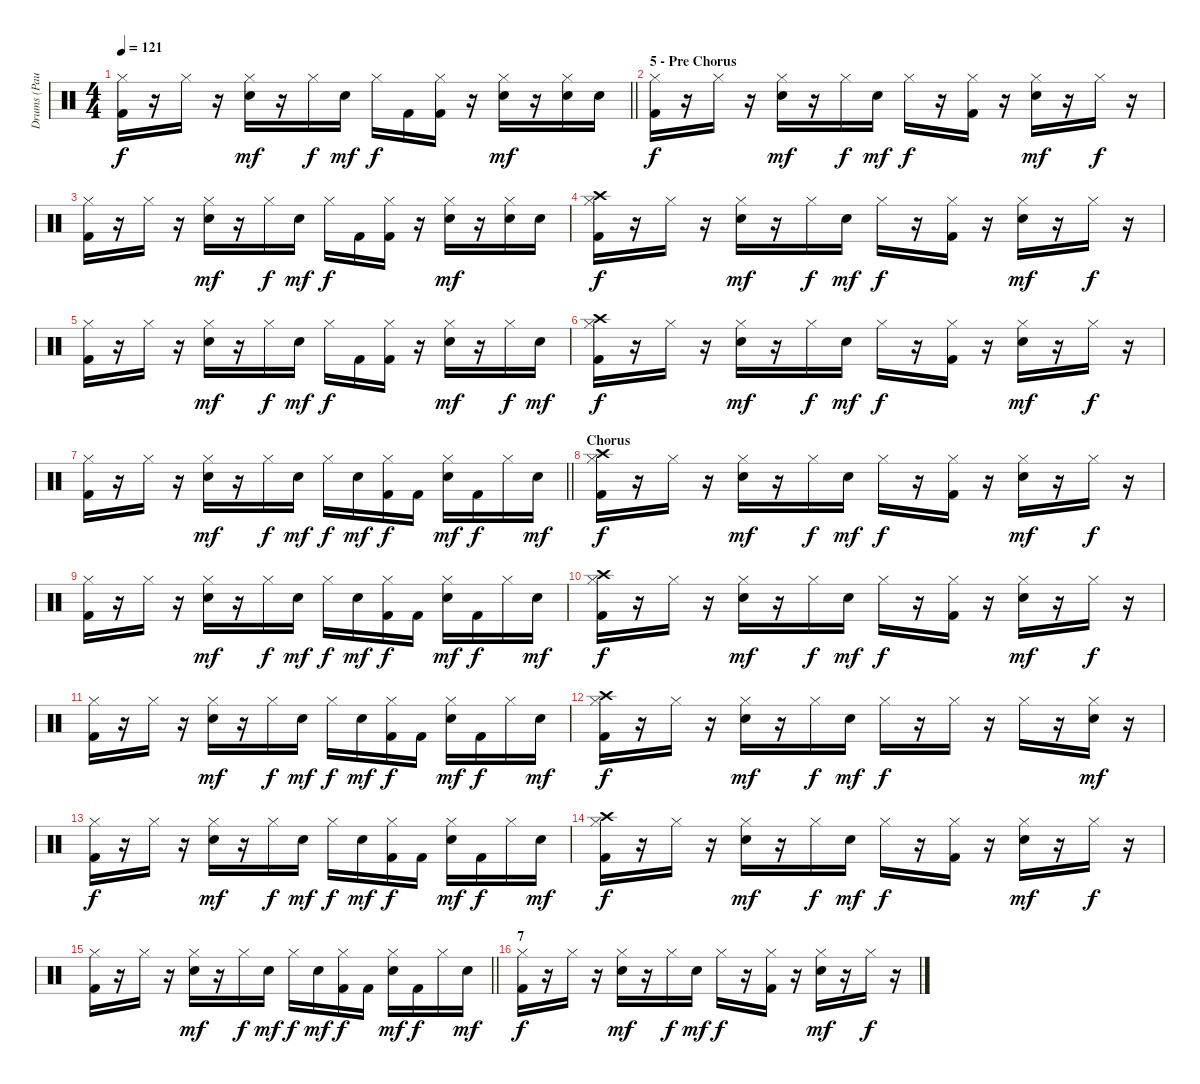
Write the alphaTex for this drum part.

\track ("Drums (Paul)" "Drums (Pau") {instrument percussion}
\staff {score}
\articulation defaults
\ts (4 4)
\tempo 121
\clef neutral
\barLineRight lightlight
\ks c
("Hi-Hat (closed)" "Kick (hit) 2").16{dy f} r.16 "Hi-Hat (closed)".16 r.16 ("Hi-Hat (closed)" "Snare (hit) 2").16{dy mf} r.16 "Hi-Hat (closed)".16{dy f} "Snare (hit) 2".16{dy mf} "Hi-Hat (closed)".16{dy f} "Kick (hit) 2".16 ("Hi-Hat (closed)" "Kick (hit) 2").16 r.16 ("Hi-Hat (closed)" "Snare (hit) 2").16{dy mf} r.16 ("Hi-Hat (closed)" "Snare (hit) 2").16 "Snare (hit) 2".16 |
\section ("" "5 - Pre Chorus")
("Hi-Hat (closed)" "Kick (hit) 2").16{dy f} r.16 "Hi-Hat (closed)".16 r.16 ("Hi-Hat (closed)" "Snare (hit) 2").16{dy mf} r.16 "Hi-Hat (closed)".16{dy f} "Snare (hit) 2".16{dy mf} "Hi-Hat (closed)".16{dy f} r.16 ("Hi-Hat (closed)" "Kick (hit) 2").16 r.16 ("Hi-Hat (closed)" "Snare (hit) 2").16{dy mf} r.16 "Hi-Hat (closed)".16{dy f} r.16 |
("Hi-Hat (closed)" "Kick (hit) 2").16 r.16 "Hi-Hat (closed)".16 r.16 ("Hi-Hat (closed)" "Snare (hit) 2").16{dy mf} r.16 "Hi-Hat (closed)".16{dy f} "Snare (hit) 2".16{dy mf} "Hi-Hat (closed)".16{dy f} "Kick (hit) 2".16 ("Hi-Hat (closed)" "Kick (hit) 2").16 r.16 ("Hi-Hat (closed)" "Snare (hit) 2").16{dy mf} r.16 ("Hi-Hat (closed)" "Snare (hit) 2").16 "Snare (hit) 2".16 |
("Hi-Hat (closed)" "Crash high (hit)" "Kick (hit) 2").16{dy f} r.16 "Hi-Hat (closed)".16 r.16 ("Hi-Hat (closed)" "Snare (hit) 2").16{dy mf} r.16 "Hi-Hat (closed)".16{dy f} "Snare (hit) 2".16{dy mf} "Hi-Hat (closed)".16{dy f} r.16 ("Hi-Hat (closed)" "Kick (hit) 2").16 r.16 ("Hi-Hat (closed)" "Snare (hit) 2").16{dy mf} r.16 "Hi-Hat (closed)".16{dy f} r.16 |
("Hi-Hat (closed)" "Kick (hit) 2").16 r.16 "Hi-Hat (closed)".16 r.16 ("Hi-Hat (closed)" "Snare (hit) 2").16{dy mf} r.16 "Hi-Hat (closed)".16{dy f} "Snare (hit) 2".16{dy mf} "Hi-Hat (closed)".16{dy f} "Kick (hit) 2".16 ("Hi-Hat (closed)" "Kick (hit) 2").16 r.16 ("Hi-Hat (closed)" "Snare (hit) 2").16{dy mf} r.16 "Hi-Hat (closed)".16{dy f} "Snare (hit) 2".16{dy mf} |
("Hi-Hat (closed)" "Crash high (hit)" "Kick (hit) 2").16{dy f} r.16 "Hi-Hat (closed)".16 r.16 ("Hi-Hat (closed)" "Snare (hit) 2").16{dy mf} r.16 "Hi-Hat (closed)".16{dy f} "Snare (hit) 2".16{dy mf} "Hi-Hat (closed)".16{dy f} r.16 ("Hi-Hat (closed)" "Kick (hit) 2").16 r.16 ("Hi-Hat (closed)" "Snare (hit) 2").16{dy mf} r.16 "Hi-Hat (closed)".16{dy f} r.16 |
\barLineRight lightlight
("Hi-Hat (closed)" "Kick (hit) 2").16 r.16 "Hi-Hat (closed)".16 r.16 ("Hi-Hat (closed)" "Snare (hit) 2").16{dy mf} r.16 "Hi-Hat (closed)".16{dy f} "Snare (hit) 2".16{dy mf} "Hi-Hat (closed)".16{dy f} "Snare (hit) 2".16{dy mf} ("Hi-Hat (closed)" "Kick (hit) 2").16{dy f} "Kick (hit) 2".16 ("Hi-Hat (closed)" "Snare (hit) 2").16{dy mf} "Kick (hit) 2".16{dy f} "Hi-Hat (closed)".16 "Snare (hit) 2".16{dy mf} |
\section ("" "Chorus")
("Hi-Hat (closed)" "Crash high (hit)" "Kick (hit) 2").16{dy f} r.16 "Hi-Hat (closed)".16 r.16 ("Hi-Hat (closed)" "Snare (hit) 2").16{dy mf} r.16 "Hi-Hat (closed)".16{dy f} "Snare (hit) 2".16{dy mf} "Hi-Hat (closed)".16{dy f} r.16 ("Hi-Hat (closed)" "Kick (hit) 2").16 r.16 ("Hi-Hat (closed)" "Snare (hit) 2").16{dy mf} r.16 "Hi-Hat (closed)".16{dy f} r.16 |
("Hi-Hat (closed)" "Kick (hit) 2").16 r.16 "Hi-Hat (closed)".16 r.16 ("Hi-Hat (closed)" "Snare (hit) 2").16{dy mf} r.16 "Hi-Hat (closed)".16{dy f} "Snare (hit) 2".16{dy mf} "Hi-Hat (closed)".16{dy f} "Snare (hit) 2".16{dy mf} ("Hi-Hat (closed)" "Kick (hit) 2").16{dy f} "Kick (hit) 2".16 ("Hi-Hat (closed)" "Snare (hit) 2").16{dy mf} "Kick (hit) 2".16{dy f} "Hi-Hat (closed)".16 "Snare (hit) 2".16{dy mf} |
("Hi-Hat (closed)" "Crash high (hit)" "Kick (hit) 2").16{dy f} r.16 "Hi-Hat (closed)".16 r.16 ("Hi-Hat (closed)" "Snare (hit) 2").16{dy mf} r.16 "Hi-Hat (closed)".16{dy f} "Snare (hit) 2".16{dy mf} "Hi-Hat (closed)".16{dy f} r.16 ("Hi-Hat (closed)" "Kick (hit) 2").16 r.16 ("Hi-Hat (closed)" "Snare (hit) 2").16{dy mf} r.16 "Hi-Hat (closed)".16{dy f} r.16 |
("Hi-Hat (closed)" "Kick (hit) 2").16 r.16 "Hi-Hat (closed)".16 r.16 ("Hi-Hat (closed)" "Snare (hit) 2").16{dy mf} r.16 "Hi-Hat (closed)".16{dy f} "Snare (hit) 2".16{dy mf} "Hi-Hat (closed)".16{dy f} "Snare (hit) 2".16{dy mf} ("Hi-Hat (closed)" "Kick (hit) 2").16{dy f} "Kick (hit) 2".16 ("Hi-Hat (closed)" "Snare (hit) 2").16{dy mf} "Kick (hit) 2".16{dy f} "Hi-Hat (closed)".16 "Snare (hit) 2".16{dy mf} |
("Hi-Hat (closed)" "Crash high (hit)" "Kick (hit) 2").16{dy f} r.16 "Hi-Hat (closed)".16 r.16 ("Hi-Hat (closed)" "Snare (hit) 2").16{dy mf} r.16 "Hi-Hat (closed)".16{dy f} "Snare (hit) 2".16{dy mf} "Hi-Hat (closed)".16{dy f} r.16 "Hi-Hat (closed)".16 r.16 "Hi-Hat (closed)".16 r.16 ("Hi-Hat (closed)" "Snare (hit) 2").16{dy mf} r.16 |
("Hi-Hat (closed)" "Kick (hit) 2").16{dy f} r.16 "Hi-Hat (closed)".16 r.16 ("Hi-Hat (closed)" "Snare (hit) 2").16{dy mf} r.16 "Hi-Hat (closed)".16{dy f} "Snare (hit) 2".16{dy mf} "Hi-Hat (closed)".16{dy f} "Snare (hit) 2".16{dy mf} ("Hi-Hat (closed)" "Kick (hit) 2").16{dy f} "Kick (hit) 2".16 ("Hi-Hat (closed)" "Snare (hit) 2").16{dy mf} "Kick (hit) 2".16{dy f} "Hi-Hat (closed)".16 "Snare (hit) 2".16{dy mf} |
("Hi-Hat (closed)" "Crash high (hit)" "Kick (hit) 2").16{dy f} r.16 "Hi-Hat (closed)".16 r.16 ("Hi-Hat (closed)" "Snare (hit) 2").16{dy mf} r.16 "Hi-Hat (closed)".16{dy f} "Snare (hit) 2".16{dy mf} "Hi-Hat (closed)".16{dy f} r.16 ("Hi-Hat (closed)" "Kick (hit) 2").16 r.16 ("Hi-Hat (closed)" "Snare (hit) 2").16{dy mf} r.16 "Hi-Hat (closed)".16{dy f} r.16 |
\barLineRight lightlight
("Hi-Hat (closed)" "Kick (hit) 2").16 r.16 "Hi-Hat (closed)".16 r.16 ("Hi-Hat (closed)" "Snare (hit) 2").16{dy mf} r.16 "Hi-Hat (closed)".16{dy f} "Snare (hit) 2".16{dy mf} "Hi-Hat (closed)".16{dy f} "Snare (hit) 2".16{dy mf} ("Hi-Hat (closed)" "Kick (hit) 2").16{dy f} "Kick (hit) 2".16 ("Hi-Hat (closed)" "Snare (hit) 2").16{dy mf} "Kick (hit) 2".16{dy f} "Hi-Hat (closed)".16 "Snare (hit) 2".16{dy mf} |
\section ("" "7")
("Hi-Hat (closed)" "Kick (hit) 2").16{dy f} r.16 "Hi-Hat (closed)".16 r.16 ("Hi-Hat (closed)" "Snare (hit) 2").16{dy mf} r.16 "Hi-Hat (closed)".16{dy f} "Snare (hit) 2".16{dy mf} "Hi-Hat (closed)".16{dy f} r.16 ("Hi-Hat (closed)" "Kick (hit) 2").16 r.16 ("Hi-Hat (closed)" "Snare (hit) 2").16{dy mf} r.16 "Hi-Hat (closed)".16{dy f} r.16
